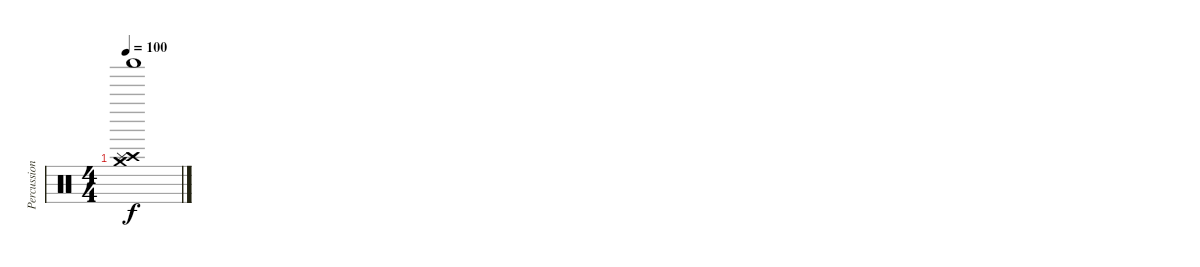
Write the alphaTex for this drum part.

\track ("Percussions" "Percussion") {instrument percussion}
\staff {score}
\articulation defaults
\ts (4 4)
\tempo 100
\clef neutral
\ks c
("Crash medium (hit)" "Shaker (hit)" "Crash high (hit)" "Splash (hit)").1{dy f}
